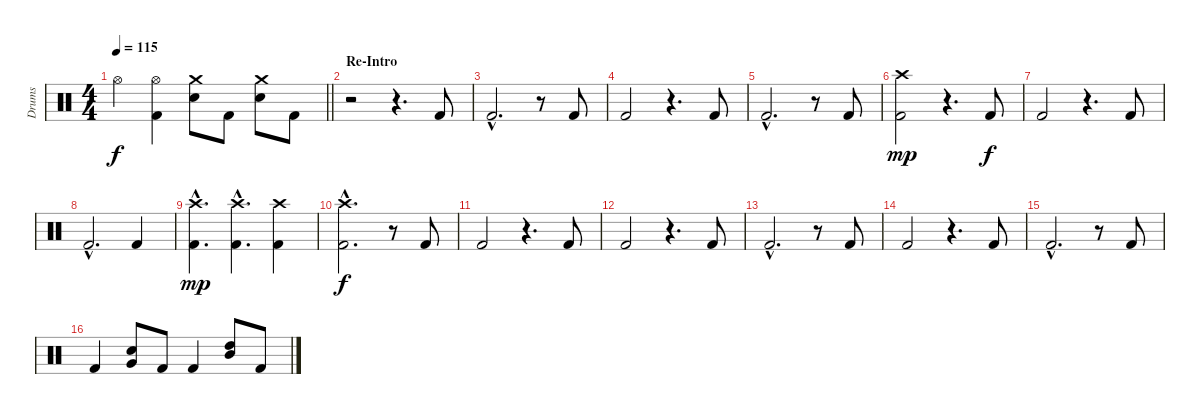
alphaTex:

\track ("Drums" "Drums") {instrument percussion}
\staff {score}
\articulation defaults
\ts (4 4)
\tempo 115
\clef neutral
\barLineRight lightlight
\ks c "Hi-Hat (open)".4{dy f}
("Hi-Hat (open)" "Kick (hit) 2").4 ("Crash medium (hit)" "Electric Snare (hit)").8 "Kick (hit) 2".8 ("Crash medium (hit)" "Electric Snare (hit)").8 "Kick (hit) 2".8 |
\section ("" "Re-Intro")
r.2 r.4{d} "Kick (hit) 2".8 |
"Kick (hit) 2"{hac}.2{d} r.8 "Kick (hit) 2".8 |
"Kick (hit) 2".2 r.4{d} "Kick (hit) 2".8 |
"Kick (hit) 2"{hac}.2{d} r.8 "Kick (hit) 2".8 |
("Crash high (hit)" "Kick (hit) 2").2{dy mp} r.4{d} "Kick (hit) 2".8{dy f} |
"Kick (hit) 2".2 r.4{d} "Kick (hit) 2".8 |
"Kick (hit) 2"{hac}.2{d} "Kick (hit) 2".4 |
("Crash high (hit)"{hac} "Kick (hit) 2"{hac}).4{d dy mp} ("Crash high (hit)"{hac} "Kick (hit) 2"{hac}).4{d} ("Crash high (hit)" "Kick (hit) 2").4 |
("Crash high (hit)"{hac} "Kick (hit) 2"{hac}).2{d dy f} r.8 "Kick (hit) 2".8 |
"Kick (hit) 2".2 r.4{d} "Kick (hit) 2".8 |
"Kick (hit) 2".2 r.4{d} "Kick (hit) 2".8 |
"Kick (hit) 2"{hac}.2{d} r.8 "Kick (hit) 2".8 |
"Kick (hit) 2".2 r.4{d} "Kick (hit) 2".8 |
"Kick (hit) 2"{hac}.2{d} r.8 "Kick (hit) 2".8 |
"Kick (hit) 2".4 ("Very Low Tom (hit)" "Electric Snare (hit)").8 "Kick (hit) 2".8 "Kick (hit) 2".4 ("High Tom (hit)" "Mid Tom (hit)").8 "Kick (hit) 2".8
